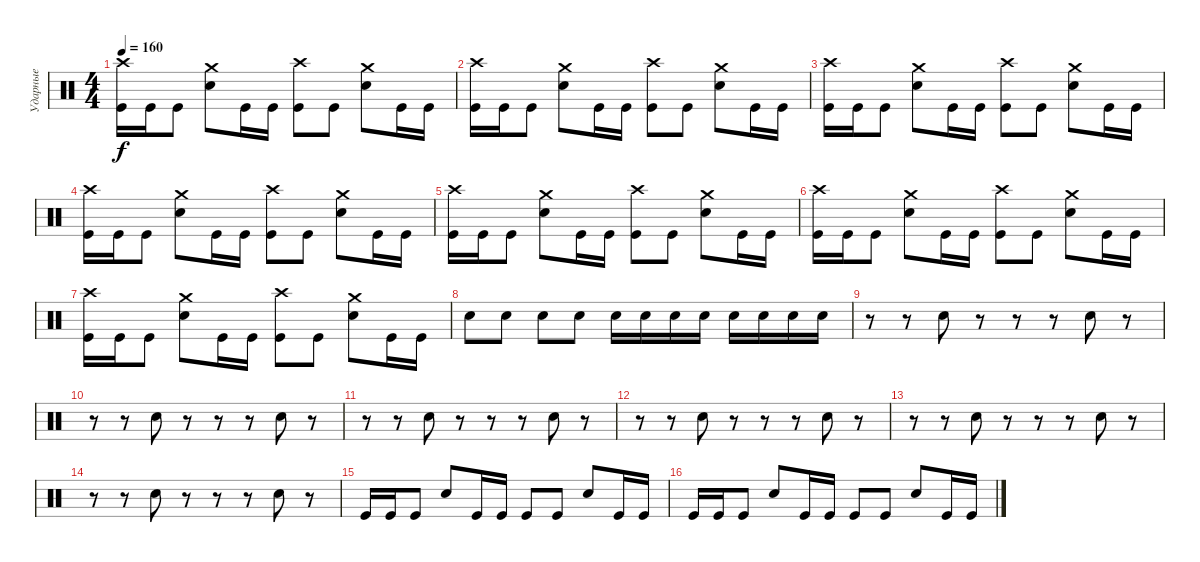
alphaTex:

\track ("Ударные" "Ударные") {instrument percussion}
\staff {score}
\articulation defaults
\ts (4 4)
\tempo 160
\clef neutral
\ks c
("Crash high (hit)" "Kick (hit)").16{dy f} "Kick (hit)".16 "Kick (hit)".8 ("Crash medium (hit)" "Snare (hit) 2").8 "Kick (hit)".16 "Kick (hit)".16 ("Crash high (hit)" "Kick (hit)").8 "Kick (hit)".8 ("Crash medium (hit)" "Snare (hit) 2").8 "Kick (hit)".16 "Kick (hit)".16 |
("Crash high (hit)" "Kick (hit)").16 "Kick (hit)".16 "Kick (hit)".8 ("Crash medium (hit)" "Snare (hit) 2").8 "Kick (hit)".16 "Kick (hit)".16 ("Crash high (hit)" "Kick (hit)").8 "Kick (hit)".8 ("Crash medium (hit)" "Snare (hit) 2").8 "Kick (hit)".16 "Kick (hit)".16 |
("Crash high (hit)" "Kick (hit)").16 "Kick (hit)".16 "Kick (hit)".8 ("Crash medium (hit)" "Snare (hit) 2").8 "Kick (hit)".16 "Kick (hit)".16 ("Crash high (hit)" "Kick (hit)").8 "Kick (hit)".8 ("Crash medium (hit)" "Snare (hit) 2").8 "Kick (hit)".16 "Kick (hit)".16 |
("Crash high (hit)" "Kick (hit)").16 "Kick (hit)".16 "Kick (hit)".8 ("Crash medium (hit)" "Snare (hit) 2").8 "Kick (hit)".16 "Kick (hit)".16 ("Crash high (hit)" "Kick (hit)").8 "Kick (hit)".8 ("Crash medium (hit)" "Snare (hit) 2").8 "Kick (hit)".16 "Kick (hit)".16 |
("Crash high (hit)" "Kick (hit)").16 "Kick (hit)".16 "Kick (hit)".8 ("Crash medium (hit)" "Snare (hit) 2").8 "Kick (hit)".16 "Kick (hit)".16 ("Crash high (hit)" "Kick (hit)").8 "Kick (hit)".8 ("Crash medium (hit)" "Snare (hit) 2").8 "Kick (hit)".16 "Kick (hit)".16 |
("Crash high (hit)" "Kick (hit)").16 "Kick (hit)".16 "Kick (hit)".8 ("Crash medium (hit)" "Snare (hit) 2").8 "Kick (hit)".16 "Kick (hit)".16 ("Crash high (hit)" "Kick (hit)").8 "Kick (hit)".8 ("Crash medium (hit)" "Snare (hit) 2").8 "Kick (hit)".16 "Kick (hit)".16 |
("Crash high (hit)" "Kick (hit)").16 "Kick (hit)".16 "Kick (hit)".8 ("Crash medium (hit)" "Snare (hit) 2").8 "Kick (hit)".16 "Kick (hit)".16 ("Crash high (hit)" "Kick (hit)").8 "Kick (hit)".8 ("Crash medium (hit)" "Snare (hit) 2").8 "Kick (hit)".16 "Kick (hit)".16 |
"Snare (hit) 2".8 "Snare (hit) 2".8 "Snare (hit) 2".8 "Snare (hit) 2".8 "Snare (hit) 2".16 "Snare (hit) 2".16 "Snare (hit) 2".16 "Snare (hit) 2".16 "Snare (hit) 2".16 "Snare (hit) 2".16 "Snare (hit) 2".16 "Snare (hit) 2".16 |
r.8 r.8 "Snare (hit) 2".8 r.8 r.8 r.8 "Snare (hit) 2".8 r.8 |
r.8 r.8 "Snare (hit) 2".8 r.8 r.8 r.8 "Snare (hit) 2".8 r.8 |
r.8 r.8 "Snare (hit) 2".8 r.8 r.8 r.8 "Snare (hit) 2".8 r.8 |
r.8 r.8 "Snare (hit) 2".8 r.8 r.8 r.8 "Snare (hit) 2".8 r.8 |
r.8 r.8 "Snare (hit) 2".8 r.8 r.8 r.8 "Snare (hit) 2".8 r.8 |
r.8 r.8 "Snare (hit) 2".8 r.8 r.8 r.8 "Snare (hit) 2".8 r.8 |
"Kick (hit)".16 "Kick (hit)".16 "Kick (hit)".8 "Snare (hit) 2".8 "Kick (hit)".16 "Kick (hit)".16 "Kick (hit)".8 "Kick (hit)".8 "Snare (hit) 2".8 "Kick (hit)".16 "Kick (hit)".16 |
"Kick (hit)".16 "Kick (hit)".16 "Kick (hit)".8 "Snare (hit) 2".8 "Kick (hit)".16 "Kick (hit)".16 "Kick (hit)".8 "Kick (hit)".8 "Snare (hit) 2".8 "Kick (hit)".16 "Kick (hit)".16
